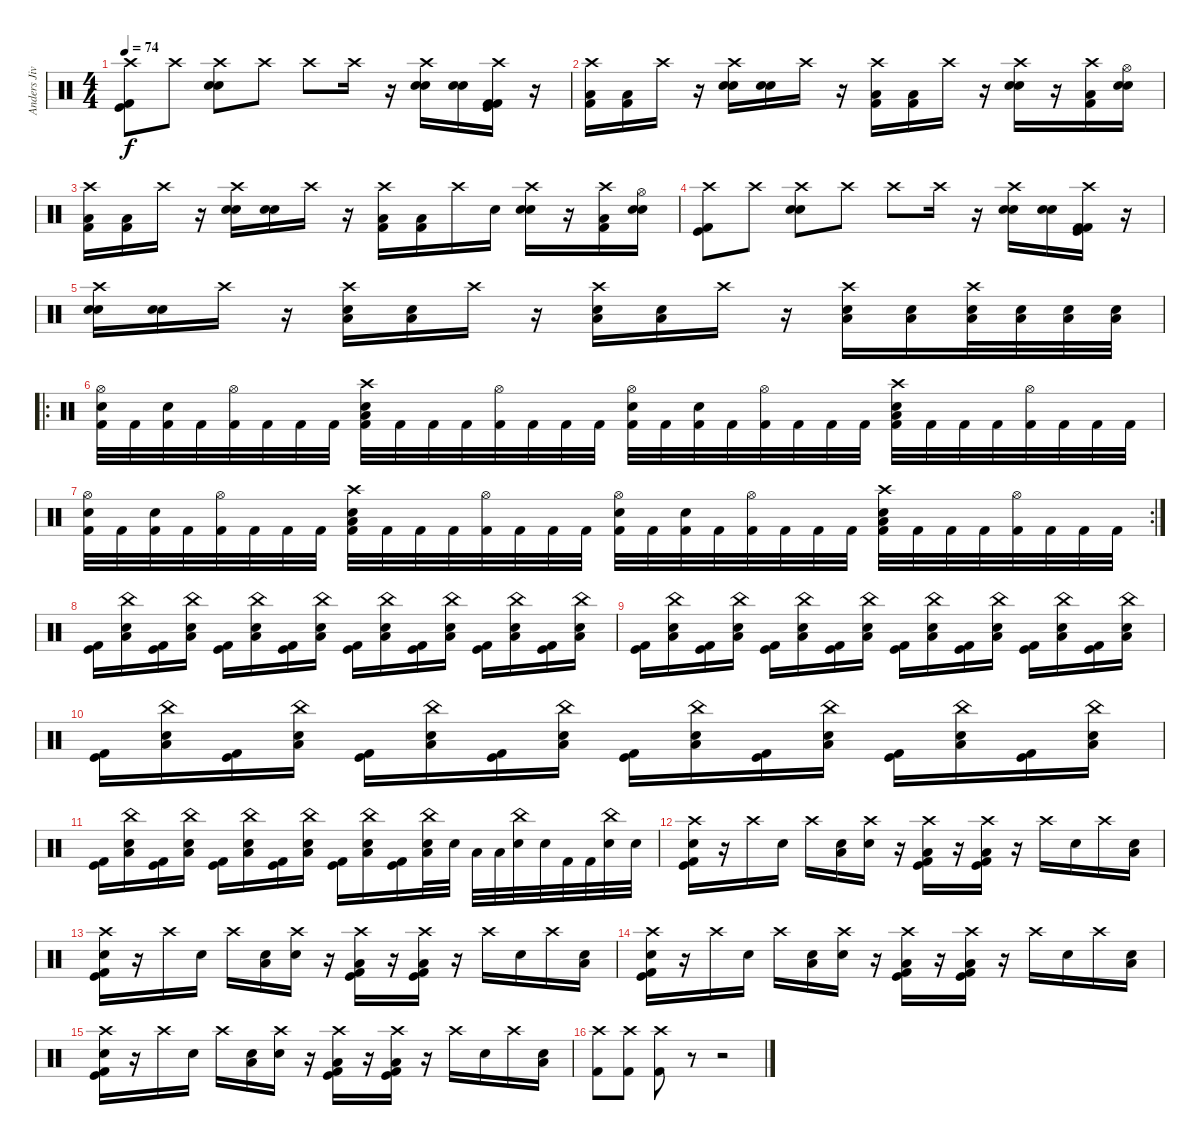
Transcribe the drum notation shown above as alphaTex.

\track ("Anders Jivarp" "Anders Jiv") {instrument percussion}
\staff {score}
\articulation defaults
\ts (4 4)
\tempo 74
\clef neutral
\ks c
("Crash high (hit)" "Kick (hit)" "Kick (hit) 2").8{dy f} "Crash high (hit)".8 ("Crash high (hit)" "Snare (hit) 2" "Electric Snare (hit)").8 "Crash high (hit)".8 "Crash high (hit)".8 "Crash high (hit)".16 r.16 ("Crash high (hit)" "Electric Snare (hit)" "Snare (hit) 2").16 ("Electric Snare (hit)" "Snare (hit) 2").16 ("Crash high (hit)" "Kick (hit)" "Kick (hit) 2" "Kick (hit) 2").16 r.16 |
("Crash high (hit)" "Low Tom (hit)" "Kick (hit) 2").16 ("Low Tom (hit)" "Kick (hit) 2").16 "Crash high (hit)".16 r.16 ("Crash high (hit)" "Snare (hit) 2" "Electric Snare (hit)").16 ("Snare (hit) 2" "Electric Snare (hit)").16 "Crash high (hit)".16 r.16 ("Crash high (hit)" "Low Tom (hit)" "Kick (hit) 2").16 ("Low Tom (hit)" "Kick (hit) 2").16 "Crash high (hit)".16 r.16 ("Crash high (hit)" "Snare (hit) 2" "Electric Snare (hit)").16 r.16 ("Crash high (hit)" "Low Tom (hit)" "Kick (hit) 2").16 ("Hi-Hat (open)" "Electric Snare (hit)" "Snare (hit) 2").16 |
("Crash high (hit)" "Low Tom (hit)" "Kick (hit) 2").16 ("Low Tom (hit)" "Kick (hit) 2").16 "Crash high (hit)".16 r.16 ("Crash high (hit)" "Snare (hit) 2" "Electric Snare (hit)").16 ("Snare (hit) 2" "Electric Snare (hit)").16 "Crash high (hit)".16 r.16 ("Crash high (hit)" "Low Tom (hit)" "Kick (hit) 2").16 ("Low Tom (hit)" "Kick (hit) 2").16 "Crash high (hit)".16 "Electric Snare (hit)".16 ("Crash high (hit)" "Snare (hit) 2" "Electric Snare (hit)").16 r.16 ("Crash high (hit)" "Low Tom (hit)" "Kick (hit) 2").16 ("Hi-Hat (open)" "Electric Snare (hit)" "Snare (hit) 2").16 |
("Crash high (hit)" "Kick (hit)" "Kick (hit) 2").8 "Crash high (hit)".8 ("Crash high (hit)" "Snare (hit) 2" "Electric Snare (hit)").8 "Crash high (hit)".8 "Crash high (hit)".8 "Crash high (hit)".16 r.16 ("Crash high (hit)" "Electric Snare (hit)" "Snare (hit) 2").16 ("Electric Snare (hit)" "Snare (hit) 2").16 ("Crash high (hit)" "Kick (hit)" "Kick (hit) 2" "Kick (hit) 2").16 r.16 |
("Crash high (hit)" "Snare (hit) 2" "Electric Snare (hit)").16 ("Snare (hit) 2" "Electric Snare (hit)").16 "Crash high (hit)".16 r.16 ("Crash high (hit)" "Electric Snare (hit)" "Low Tom (hit)").16 ("Electric Snare (hit)" "Low Tom (hit)").16 "Crash high (hit)".16 r.16 ("Crash high (hit)" "Electric Snare (hit)" "Low Tom (hit)").16 ("Electric Snare (hit)" "Low Tom (hit)").16 "Crash high (hit)".16 r.16 ("Crash high (hit)" "Electric Snare (hit)" "Low Tom (hit)").16 ("Electric Snare (hit)" "Low Tom (hit)").16 ("Crash high (hit)" "Electric Snare (hit)" "Low Tom (hit)").32 ("Electric Snare (hit)" "Low Tom (hit)").32 ("Electric Snare (hit)" "Low Tom (hit)").32 ("Electric Snare (hit)" "Low Tom (hit)").32 |
\ro
("Hi-Hat (open)" "Snare (hit) 2" "Kick (hit) 2").32 "Kick (hit) 2".32 ("Snare (hit) 2" "Kick (hit) 2").32 "Kick (hit) 2".32 ("Hi-Hat (open)" "Kick (hit) 2").32 "Kick (hit) 2".32 "Kick (hit) 2".32 "Kick (hit) 2".32 ("Crash high (hit)" "Electric Snare (hit)" "Low Tom (hit)" "Kick (hit) 2").32 "Kick (hit) 2".32 "Kick (hit) 2".32 "Kick (hit) 2".32 ("Hi-Hat (open)" "Kick (hit) 2").32 "Kick (hit) 2".32 "Kick (hit) 2".32 "Kick (hit) 2".32 ("Hi-Hat (open)" "Snare (hit) 2" "Kick (hit) 2").32 "Kick (hit) 2".32 ("Snare (hit) 2" "Kick (hit) 2").32 "Kick (hit) 2".32 ("Hi-Hat (open)" "Kick (hit) 2").32 "Kick (hit) 2".32 "Kick (hit) 2".32 "Kick (hit) 2".32 ("Crash high (hit)" "Electric Snare (hit)" "Low Tom (hit)" "Kick (hit) 2").32 "Kick (hit) 2".32 "Kick (hit) 2".32 "Kick (hit) 2".32 ("Hi-Hat (open)" "Kick (hit) 2").32 "Kick (hit) 2".32 "Kick (hit) 2".32 "Kick (hit) 2".32 |
\rc 2
("Hi-Hat (open)" "Snare (hit) 2" "Kick (hit) 2").32 "Kick (hit) 2".32 ("Snare (hit) 2" "Kick (hit) 2").32 "Kick (hit) 2".32 ("Hi-Hat (open)" "Kick (hit) 2").32 "Kick (hit) 2".32 "Kick (hit) 2".32 "Kick (hit) 2".32 ("Crash high (hit)" "Electric Snare (hit)" "Low Tom (hit)" "Kick (hit) 2").32 "Kick (hit) 2".32 "Kick (hit) 2".32 "Kick (hit) 2".32 ("Hi-Hat (open)" "Kick (hit) 2").32 "Kick (hit) 2".32 "Kick (hit) 2".32 "Kick (hit) 2".32 ("Hi-Hat (open)" "Snare (hit) 2" "Kick (hit) 2").32 "Kick (hit) 2".32 ("Snare (hit) 2" "Kick (hit) 2").32 "Kick (hit) 2".32 ("Hi-Hat (open)" "Kick (hit) 2").32 "Kick (hit) 2".32 "Kick (hit) 2".32 "Kick (hit) 2".32 ("Crash high (hit)" "Electric Snare (hit)" "Low Tom (hit)" "Kick (hit) 2").32 "Kick (hit) 2".32 "Kick (hit) 2".32 "Kick (hit) 2".32 ("Hi-Hat (open)" "Kick (hit) 2").32 "Kick (hit) 2".32 "Kick (hit) 2".32 "Kick (hit) 2".32 |
("Kick (hit)" "Kick (hit) 2").16 ("Low Tom (hit)" "China (hit)" "Electric Snare (hit)").16 ("Kick (hit)" "Kick (hit) 2").16 ("Low Tom (hit)" "China (hit)" "Electric Snare (hit)").16 ("Kick (hit)" "Kick (hit) 2").16 ("Low Tom (hit)" "China (hit)" "Electric Snare (hit)").16 ("Kick (hit)" "Kick (hit) 2").16 ("Low Tom (hit)" "China (hit)" "Electric Snare (hit)").16 ("Kick (hit)" "Kick (hit) 2").16 ("Low Tom (hit)" "China (hit)" "Electric Snare (hit)").16 ("Kick (hit)" "Kick (hit) 2").16 ("Low Tom (hit)" "China (hit)" "Electric Snare (hit)").16 ("Kick (hit)" "Kick (hit) 2").16 ("Low Tom (hit)" "China (hit)" "Electric Snare (hit)").16 ("Kick (hit)" "Kick (hit) 2").16 ("Low Tom (hit)" "China (hit)" "Electric Snare (hit)").16 |
("Kick (hit)" "Kick (hit) 2").16 ("Low Tom (hit)" "China (hit)" "Electric Snare (hit)").16 ("Kick (hit)" "Kick (hit) 2").16 ("Low Tom (hit)" "China (hit)" "Electric Snare (hit)").16 ("Kick (hit)" "Kick (hit) 2").16 ("Low Tom (hit)" "China (hit)" "Electric Snare (hit)").16 ("Kick (hit)" "Kick (hit) 2").16 ("Low Tom (hit)" "China (hit)" "Electric Snare (hit)").16 ("Kick (hit)" "Kick (hit) 2").16 ("Low Tom (hit)" "China (hit)" "Electric Snare (hit)").16 ("Kick (hit)" "Kick (hit) 2").16 ("Low Tom (hit)" "China (hit)" "Electric Snare (hit)").16 ("Kick (hit)" "Kick (hit) 2").16 ("Low Tom (hit)" "China (hit)" "Electric Snare (hit)").16 ("Kick (hit)" "Kick (hit) 2").16 ("Low Tom (hit)" "China (hit)" "Electric Snare (hit)").16 |
("Kick (hit)" "Kick (hit) 2").16 ("Low Tom (hit)" "China (hit)" "Electric Snare (hit)").16 ("Kick (hit)" "Kick (hit) 2").16 ("Low Tom (hit)" "China (hit)" "Electric Snare (hit)").16 ("Kick (hit)" "Kick (hit) 2").16 ("Low Tom (hit)" "China (hit)" "Electric Snare (hit)").16 ("Kick (hit)" "Kick (hit) 2").16 ("Low Tom (hit)" "China (hit)" "Electric Snare (hit)").16 ("Kick (hit)" "Kick (hit) 2").16 ("Low Tom (hit)" "China (hit)" "Electric Snare (hit)").16 ("Kick (hit)" "Kick (hit) 2").16 ("Low Tom (hit)" "China (hit)" "Electric Snare (hit)").16 ("Kick (hit)" "Kick (hit) 2").16 ("Low Tom (hit)" "China (hit)" "Electric Snare (hit)").16 ("Kick (hit)" "Kick (hit) 2").16 ("Low Tom (hit)" "China (hit)" "Electric Snare (hit)").16 |
("Kick (hit)" "Kick (hit) 2").16 ("Low Tom (hit)" "China (hit)" "Electric Snare (hit)").16 ("Kick (hit)" "Kick (hit) 2").16 ("Low Tom (hit)" "China (hit)" "Electric Snare (hit)").16 ("Kick (hit)" "Kick (hit) 2").16 ("Low Tom (hit)" "China (hit)" "Electric Snare (hit)").16 ("Kick (hit)" "Kick (hit) 2").16 ("Low Tom (hit)" "China (hit)" "Electric Snare (hit)").16 ("Kick (hit)" "Kick (hit) 2").16 ("Low Tom (hit)" "China (hit)" "Electric Snare (hit)").16 ("Kick (hit)" "Kick (hit) 2").16 ("Low Tom (hit)" "China (hit)" "Electric Snare (hit)").32 "Electric Snare (hit)".32 "Low Tom (hit)".32 "Low Tom (hit)".32 ("China (hit)" "Snare (hit) 2").32 "Snare (hit) 2".32 "Kick (hit) 2".32 "Kick (hit) 2".32 ("China (hit)" "Electric Snare (hit)").32 "Electric Snare (hit)".32 |
("Crash high (hit)" "Snare (hit) 2" "Kick (hit) 2" "Kick (hit)").16 r.16 "Crash high (hit)".16 "Electric Snare (hit)".16 "Crash high (hit)".16 ("Low Tom (hit)" "Snare (hit) 2").16 ("Crash high (hit)" "Electric Snare (hit)").16 r.16 ("Crash high (hit)" "Kick (hit)" "Low Tom (hit)" "Kick (hit) 2").16 r.16 ("Crash high (hit)" "Kick (hit)" "Low Tom (hit)" "Kick (hit) 2").16 r.16 "Crash high (hit)".16 "Electric Snare (hit)".16 "Crash high (hit)".16 ("Low Tom (hit)" "Snare (hit) 2").16 |
("Crash high (hit)" "Snare (hit) 2" "Kick (hit) 2" "Kick (hit)").16 r.16 "Crash high (hit)".16 "Electric Snare (hit)".16 "Crash high (hit)".16 ("Low Tom (hit)" "Snare (hit) 2").16 ("Crash high (hit)" "Electric Snare (hit)").16 r.16 ("Crash high (hit)" "Kick (hit)" "Low Tom (hit)" "Kick (hit) 2").16 r.16 ("Crash high (hit)" "Kick (hit)" "Low Tom (hit)" "Kick (hit) 2").16 r.16 "Crash high (hit)".16 "Electric Snare (hit)".16 "Crash high (hit)".16 ("Low Tom (hit)" "Snare (hit) 2").16 |
("Crash high (hit)" "Snare (hit) 2" "Kick (hit) 2" "Kick (hit)").16 r.16 "Crash high (hit)".16 "Electric Snare (hit)".16 "Crash high (hit)".16 ("Low Tom (hit)" "Snare (hit) 2").16 ("Crash high (hit)" "Electric Snare (hit)").16 r.16 ("Crash high (hit)" "Kick (hit)" "Low Tom (hit)" "Kick (hit) 2").16 r.16 ("Crash high (hit)" "Kick (hit)" "Low Tom (hit)" "Kick (hit) 2").16 r.16 "Crash high (hit)".16 "Electric Snare (hit)".16 "Crash high (hit)".16 ("Low Tom (hit)" "Snare (hit) 2").16 |
("Crash high (hit)" "Snare (hit) 2" "Kick (hit) 2" "Kick (hit)").16 r.16 "Crash high (hit)".16 "Electric Snare (hit)".16 "Crash high (hit)".16 ("Low Tom (hit)" "Snare (hit) 2").16 ("Crash high (hit)" "Electric Snare (hit)").16 r.16 ("Crash high (hit)" "Kick (hit)" "Low Tom (hit)" "Kick (hit) 2").16 r.16 ("Crash high (hit)" "Kick (hit)" "Low Tom (hit)" "Kick (hit) 2").16 r.16 "Crash high (hit)".16 "Electric Snare (hit)".16 "Crash high (hit)".16 ("Low Tom (hit)" "Snare (hit) 2").16 |
("Crash high (hit)" "Kick (hit) 2").8 ("Crash high (hit)" "Kick (hit) 2").8 ("Crash high (hit)" "Kick (hit) 2").8 r.8 r.2
